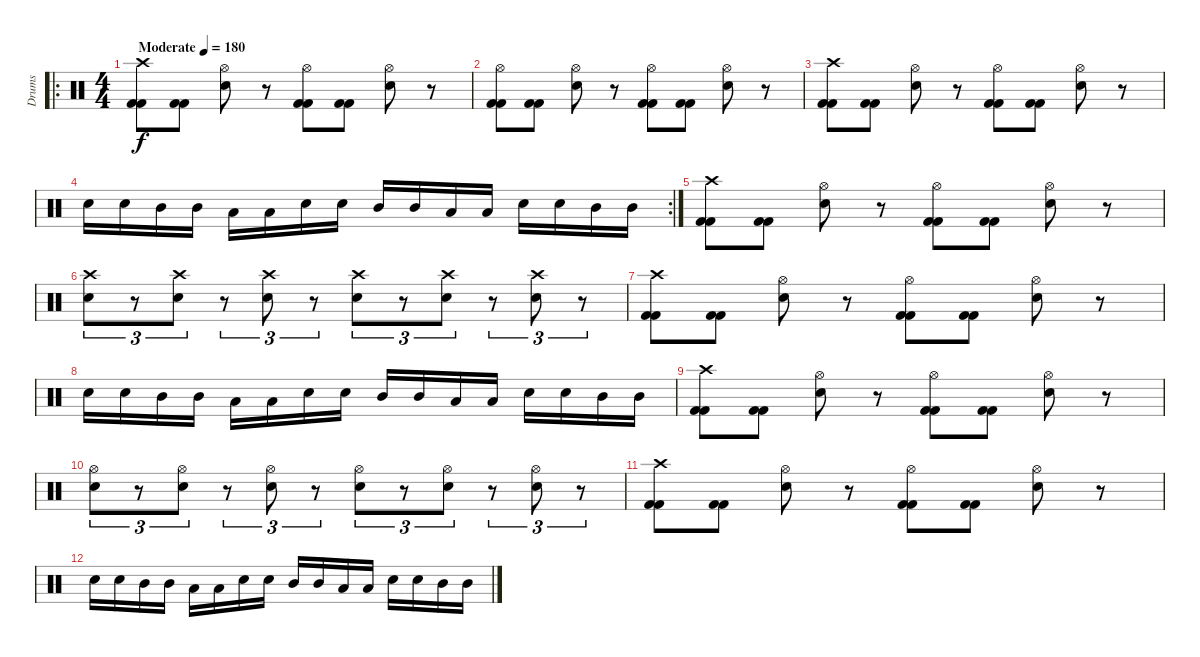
\track ("Drums" "Drums") {instrument percussion}
\staff {score}
\articulation defaults
\ro
\ts (4 4)
\tempo (180 "Moderate")
\clef neutral
\ks c
("Kick (hit) 2" "Kick (hit) 2" "Crash high (hit)").8{dy f} ("Kick (hit) 2" "Kick (hit) 2").8 ("Snare (hit) 2" "Hi-Hat (open)").8 r.8 ("Kick (hit) 2" "Kick (hit) 2" "Hi-Hat (open)").8 ("Kick (hit) 2" "Kick (hit) 2").8 ("Snare (hit) 2" "Hi-Hat (open)").8 r.8 |
("Kick (hit) 2" "Kick (hit) 2" "Hi-Hat (open)").8 ("Kick (hit) 2" "Kick (hit) 2").8 ("Snare (hit) 2" "Hi-Hat (open)").8 r.8 ("Kick (hit) 2" "Kick (hit) 2" "Hi-Hat (open)").8 ("Kick (hit) 2" "Kick (hit) 2").8 ("Snare (hit) 2" "Hi-Hat (open)").8 r.8 |
("Kick (hit) 2" "Kick (hit) 2" "Crash high (hit)").8 ("Kick (hit) 2" "Kick (hit) 2").8 ("Snare (hit) 2" "Hi-Hat (open)").8 r.8 ("Kick (hit) 2" "Kick (hit) 2" "Hi-Hat (open)").8 ("Kick (hit) 2" "Kick (hit) 2").8 ("Snare (hit) 2" "Hi-Hat (open)").8 r.8 |
\rc 2 "Snare (hit) 2".16 "Snare (hit) 2".16 "Mid Tom (hit)".16 "Mid Tom (hit)".16 "Low Tom (hit)".16 "Low Tom (hit)".16 "Snare (hit) 2".16 "Snare (hit) 2".16 "Mid Tom (hit)".16 "Mid Tom (hit)".16 "Low Tom (hit)".16 "Low Tom (hit)".16 "Snare (hit) 2".16 "Snare (hit) 2".16 "Mid Tom (hit)".16 "Mid Tom (hit)".16
|
("Kick (hit) 2" "Kick (hit) 2" "Crash high (hit)").8 ("Kick (hit) 2" "Kick (hit) 2").8 ("Snare (hit) 2" "Hi-Hat (open)").8 r.8 ("Kick (hit) 2" "Kick (hit) 2" "Hi-Hat (open)").8 ("Kick (hit) 2" "Kick (hit) 2").8 ("Snare (hit) 2" "Hi-Hat (open)").8 r.8 |
("Snare (hit) 2" "Crash high (hit)").8{tu (3 2)} r.8{tu (3 2)} ("Snare (hit) 2" "Crash high (hit)").8{tu (3 2)} r.8{tu (3 2)} ("Snare (hit) 2" "Crash high (hit)").8{tu (3 2)} r.8{tu (3 2)} ("Snare (hit) 2" "Crash high (hit)").8{tu (3 2)} r.8{tu (3 2)} ("Snare (hit) 2" "Crash high (hit)").8{tu (3 2)} r.8{tu (3 2)} ("Snare (hit) 2" "Crash high (hit)").8{tu (3 2)} r.8{tu (3 2)} |
("Kick (hit) 2" "Kick (hit) 2" "Crash high (hit)").8 ("Kick (hit) 2" "Kick (hit) 2").8 ("Snare (hit) 2" "Hi-Hat (open)").8 r.8 ("Kick (hit) 2" "Kick (hit) 2" "Hi-Hat (open)").8 ("Kick (hit) 2" "Kick (hit) 2").8 ("Snare (hit) 2" "Hi-Hat (open)").8 r.8 |
"Snare (hit) 2".16 "Snare (hit) 2".16 "Mid Tom (hit)".16 "Mid Tom (hit)".16 "Low Tom (hit)".16 "Low Tom (hit)".16 "Snare (hit) 2".16 "Snare (hit) 2".16 "Mid Tom (hit)".16 "Mid Tom (hit)".16 "Low Tom (hit)".16 "Low Tom (hit)".16 "Snare (hit) 2".16 "Snare (hit) 2".16 "Mid Tom (hit)".16 "Mid Tom (hit)".16 |
("Kick (hit) 2" "Kick (hit) 2" "Crash high (hit)").8 ("Kick (hit) 2" "Kick (hit) 2").8 ("Snare (hit) 2" "Hi-Hat (open)").8 r.8 ("Kick (hit) 2" "Kick (hit) 2" "Hi-Hat (open)").8 ("Kick (hit) 2" "Kick (hit) 2").8 ("Snare (hit) 2" "Hi-Hat (open)").8 r.8 |
("Snare (hit) 2" "Hi-Hat (open)").8{tu (3 2)} r.8{tu (3 2)} ("Snare (hit) 2" "Hi-Hat (open)").8{tu (3 2)} r.8{tu (3 2)} ("Snare (hit) 2" "Hi-Hat (open)").8{tu (3 2)} r.8{tu (3 2)} ("Snare (hit) 2" "Hi-Hat (open)").8{tu (3 2)} r.8{tu (3 2)} ("Snare (hit) 2" "Hi-Hat (open)").8{tu (3 2)} r.8{tu (3 2)} ("Snare (hit) 2" "Hi-Hat (open)").8{tu (3 2)} r.8{tu (3 2)} |
("Kick (hit) 2" "Kick (hit) 2" "Crash high (hit)").8 ("Kick (hit) 2" "Kick (hit) 2").8 ("Snare (hit) 2" "Hi-Hat (open)").8 r.8 ("Kick (hit) 2" "Kick (hit) 2" "Hi-Hat (open)").8 ("Kick (hit) 2" "Kick (hit) 2").8 ("Snare (hit) 2" "Hi-Hat (open)").8 r.8 |
"Snare (hit) 2".16 "Snare (hit) 2".16 "Mid Tom (hit)".16 "Mid Tom (hit)".16 "Low Tom (hit)".16 "Low Tom (hit)".16 "Snare (hit) 2".16 "Snare (hit) 2".16 "Mid Tom (hit)".16 "Mid Tom (hit)".16 "Low Tom (hit)".16 "Low Tom (hit)".16 "Snare (hit) 2".16 "Snare (hit) 2".16 "Mid Tom (hit)".16 "Mid Tom (hit)".16
